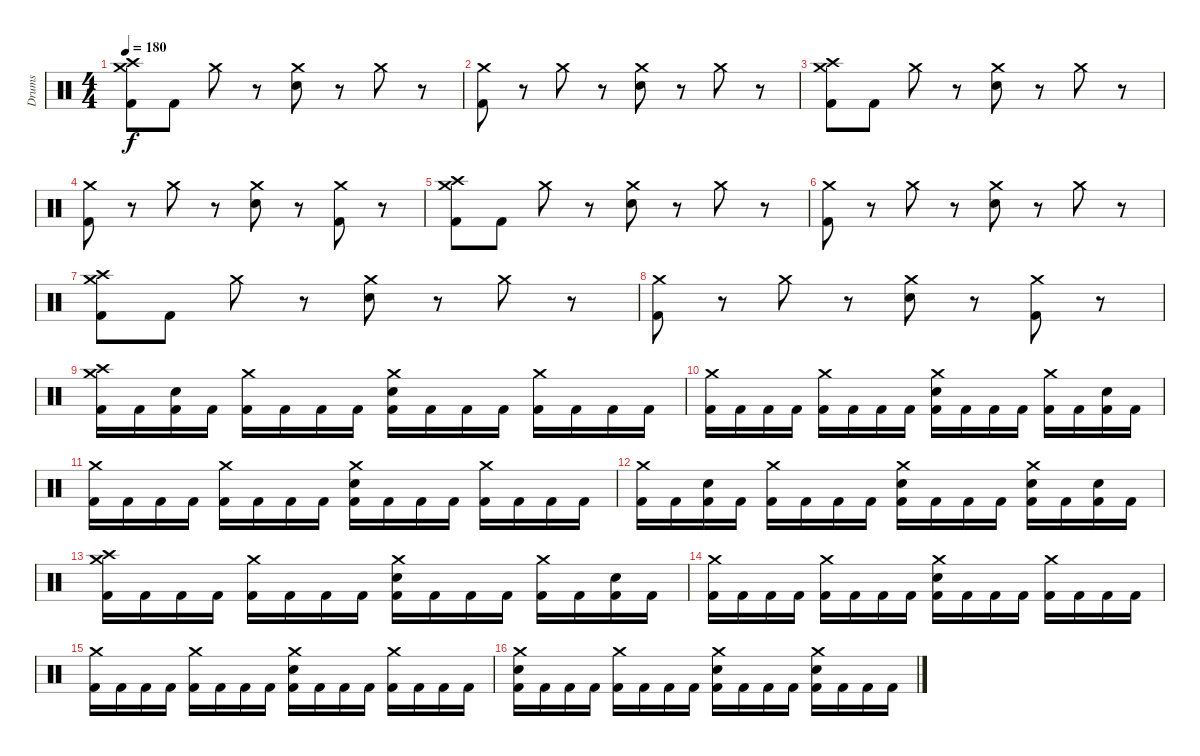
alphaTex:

\track ("Drums" "Drums") {instrument percussion}
\staff {score}
\articulation defaults
\ts (4 4)
\tempo 180
\clef neutral
\ks c
("Crash high (hit)" "Crash medium (hit)" "Kick (hit) 2").8{dy f} "Kick (hit) 2".8 "Crash medium (hit)".8 r.8 ("Crash medium (hit)" "Snare (hit) 2").8 r.8 "Crash medium (hit)".8 r.8 |
("Crash medium (hit)" "Kick (hit) 2").8 r.8 "Crash medium (hit)".8 r.8 ("Crash medium (hit)" "Snare (hit) 2").8 r.8 "Crash medium (hit)".8 r.8 |
("Crash high (hit)" "Crash medium (hit)" "Kick (hit) 2").8 "Kick (hit) 2".8 "Crash medium (hit)".8 r.8 ("Crash medium (hit)" "Snare (hit) 2").8 r.8 "Crash medium (hit)".8 r.8 |
("Crash medium (hit)" "Kick (hit) 2").8 r.8 "Crash medium (hit)".8 r.8 ("Crash medium (hit)" "Snare (hit) 2").8 r.8 ("Crash medium (hit)" "Kick (hit) 2").8 r.8 |
("Crash high (hit)" "Crash medium (hit)" "Kick (hit) 2").8 "Kick (hit) 2".8 "Crash medium (hit)".8 r.8 ("Crash medium (hit)" "Snare (hit) 2").8 r.8 "Crash medium (hit)".8 r.8 |
("Crash medium (hit)" "Kick (hit) 2").8 r.8 "Crash medium (hit)".8 r.8 ("Crash medium (hit)" "Snare (hit) 2").8 r.8 "Crash medium (hit)".8 r.8 |
("Crash high (hit)" "Crash medium (hit)" "Kick (hit) 2").8 "Kick (hit) 2".8 "Crash medium (hit)".8 r.8 ("Crash medium (hit)" "Snare (hit) 2").8 r.8 "Crash medium (hit)".8 r.8 |
("Crash medium (hit)" "Kick (hit) 2").8 r.8 "Crash medium (hit)".8 r.8 ("Crash medium (hit)" "Snare (hit) 2").8 r.8 ("Crash medium (hit)" "Kick (hit) 2").8 r.8 |
("Crash high (hit)" "Crash medium (hit)" "Kick (hit) 2").16 "Kick (hit) 2".16 ("Snare (hit) 2" "Kick (hit) 2").16 "Kick (hit) 2".16 ("Crash medium (hit)" "Kick (hit) 2").16 "Kick (hit) 2".16 "Kick (hit) 2".16 "Kick (hit) 2".16 ("Crash medium (hit)" "Snare (hit) 2" "Kick (hit) 2").16 "Kick (hit) 2".16 "Kick (hit) 2".16 "Kick (hit) 2".16 ("Crash medium (hit)" "Kick (hit) 2").16 "Kick (hit) 2".16 "Kick (hit) 2".16 "Kick (hit) 2".16 |
("Crash medium (hit)" "Kick (hit) 2").16 "Kick (hit) 2".16 "Kick (hit) 2".16 "Kick (hit) 2".16 ("Crash medium (hit)" "Kick (hit) 2").16 "Kick (hit) 2".16 "Kick (hit) 2".16 "Kick (hit) 2".16 ("Crash medium (hit)" "Snare (hit) 2" "Kick (hit) 2").16 "Kick (hit) 2".16 "Kick (hit) 2".16 "Kick (hit) 2".16 ("Crash medium (hit)" "Kick (hit) 2").16 "Kick (hit) 2".16 ("Snare (hit) 2" "Kick (hit) 2").16 "Kick (hit) 2".16 |
("Crash medium (hit)" "Kick (hit) 2").16 "Kick (hit) 2".16 "Kick (hit) 2".16 "Kick (hit) 2".16 ("Crash medium (hit)" "Kick (hit) 2").16 "Kick (hit) 2".16 "Kick (hit) 2".16 "Kick (hit) 2".16 ("Crash medium (hit)" "Snare (hit) 2" "Kick (hit) 2").16 "Kick (hit) 2".16 "Kick (hit) 2".16 "Kick (hit) 2".16 ("Crash medium (hit)" "Kick (hit) 2").16 "Kick (hit) 2".16 "Kick (hit) 2".16 "Kick (hit) 2".16 |
("Crash medium (hit)" "Kick (hit) 2").16 "Kick (hit) 2".16 ("Snare (hit) 2" "Kick (hit) 2").16 "Kick (hit) 2".16 ("Crash medium (hit)" "Kick (hit) 2").16 "Kick (hit) 2".16 "Kick (hit) 2".16 "Kick (hit) 2".16 ("Crash medium (hit)" "Snare (hit) 2" "Kick (hit) 2").16 "Kick (hit) 2".16 "Kick (hit) 2".16 "Kick (hit) 2".16 ("Crash medium (hit)" "Snare (hit) 2" "Kick (hit) 2").16 "Kick (hit) 2".16 ("Snare (hit) 2" "Kick (hit) 2").16 "Kick (hit) 2".16 |
("Crash high (hit)" "Crash medium (hit)" "Kick (hit) 2").16 "Kick (hit) 2".16 "Kick (hit) 2".16 "Kick (hit) 2".16 ("Crash medium (hit)" "Kick (hit) 2").16 "Kick (hit) 2".16 "Kick (hit) 2".16 "Kick (hit) 2".16 ("Crash medium (hit)" "Snare (hit) 2" "Kick (hit) 2").16 "Kick (hit) 2".16 "Kick (hit) 2".16 "Kick (hit) 2".16 ("Crash medium (hit)" "Kick (hit) 2").16 "Kick (hit) 2".16 ("Snare (hit) 2" "Kick (hit) 2").16 "Kick (hit) 2".16 |
("Crash medium (hit)" "Kick (hit) 2").16 "Kick (hit) 2".16 "Kick (hit) 2".16 "Kick (hit) 2".16 ("Crash medium (hit)" "Kick (hit) 2").16 "Kick (hit) 2".16 "Kick (hit) 2".16 "Kick (hit) 2".16 ("Crash medium (hit)" "Snare (hit) 2" "Kick (hit) 2").16 "Kick (hit) 2".16 "Kick (hit) 2".16 "Kick (hit) 2".16 ("Crash medium (hit)" "Kick (hit) 2").16 "Kick (hit) 2".16 "Kick (hit) 2".16 "Kick (hit) 2".16 |
("Crash medium (hit)" "Kick (hit) 2").16 "Kick (hit) 2".16 "Kick (hit) 2".16 "Kick (hit) 2".16 ("Crash medium (hit)" "Kick (hit) 2").16 "Kick (hit) 2".16 "Kick (hit) 2".16 "Kick (hit) 2".16 ("Crash medium (hit)" "Snare (hit) 2" "Kick (hit) 2").16 "Kick (hit) 2".16 "Kick (hit) 2".16 "Kick (hit) 2".16 ("Crash medium (hit)" "Kick (hit) 2").16 "Kick (hit) 2".16 "Kick (hit) 2".16 "Kick (hit) 2".16 |
("Crash medium (hit)" "Snare (hit) 2" "Kick (hit) 2").16 "Kick (hit) 2".16 "Kick (hit) 2".16 "Kick (hit) 2".16 ("Crash medium (hit)" "Kick (hit) 2").16 "Kick (hit) 2".16 "Kick (hit) 2".16 "Kick (hit) 2".16 ("Crash medium (hit)" "Snare (hit) 2" "Kick (hit) 2").16 "Kick (hit) 2".16 "Kick (hit) 2".16 "Kick (hit) 2".16 ("Crash medium (hit)" "Snare (hit) 2" "Kick (hit) 2").16 "Kick (hit) 2".16 "Kick (hit) 2".16 "Kick (hit) 2".16
